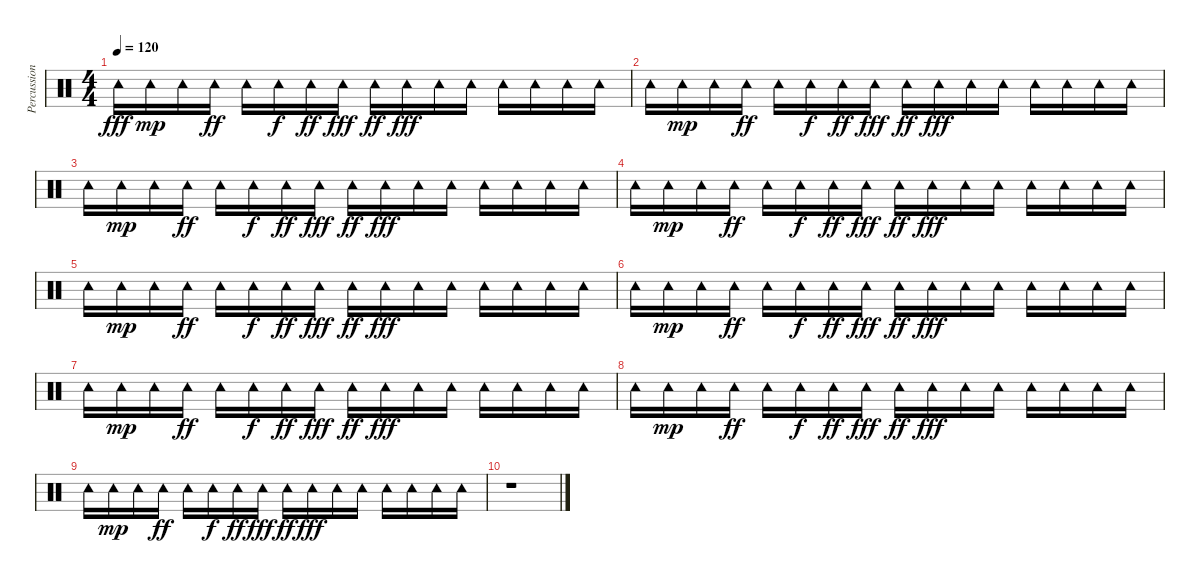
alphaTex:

\track ("Percussion" "Percussion") {instrument percussion}
\staff {score}
\articulation defaults
\ts (4 4)
\tempo 120
\clef neutral
\ks c "Tambourine (hit)".16{dy fff} "Tambourine (hit)".16{dy mp} "Tambourine (hit)".16 "Tambourine (hit)".16{dy ff} "Tambourine (hit)".16 "Tambourine (hit)".16{dy f} "Tambourine (hit)".16{dy ff} "Tambourine (hit)".16{dy fff} "Tambourine (hit)".16{dy ff} "Tambourine (hit)".16{dy fff} "Tambourine (hit)".16 "Tambourine (hit)".16 "Tambourine (hit)".16 "Tambourine (hit)".16 "Tambourine (hit)".16 "Tambourine (hit)".16
|
"Tambourine (hit)".16 "Tambourine (hit)".16{dy mp} "Tambourine (hit)".16 "Tambourine (hit)".16{dy ff} "Tambourine (hit)".16 "Tambourine (hit)".16{dy f} "Tambourine (hit)".16{dy ff} "Tambourine (hit)".16{dy fff} "Tambourine (hit)".16{dy ff} "Tambourine (hit)".16{dy fff} "Tambourine (hit)".16 "Tambourine (hit)".16 "Tambourine (hit)".16 "Tambourine (hit)".16 "Tambourine (hit)".16 "Tambourine (hit)".16 |
"Tambourine (hit)".16 "Tambourine (hit)".16{dy mp} "Tambourine (hit)".16 "Tambourine (hit)".16{dy ff} "Tambourine (hit)".16 "Tambourine (hit)".16{dy f} "Tambourine (hit)".16{dy ff} "Tambourine (hit)".16{dy fff} "Tambourine (hit)".16{dy ff} "Tambourine (hit)".16{dy fff} "Tambourine (hit)".16 "Tambourine (hit)".16 "Tambourine (hit)".16 "Tambourine (hit)".16 "Tambourine (hit)".16 "Tambourine (hit)".16 |
"Tambourine (hit)".16 "Tambourine (hit)".16{dy mp} "Tambourine (hit)".16 "Tambourine (hit)".16{dy ff} "Tambourine (hit)".16 "Tambourine (hit)".16{dy f} "Tambourine (hit)".16{dy ff} "Tambourine (hit)".16{dy fff} "Tambourine (hit)".16{dy ff} "Tambourine (hit)".16{dy fff} "Tambourine (hit)".16 "Tambourine (hit)".16 "Tambourine (hit)".16 "Tambourine (hit)".16 "Tambourine (hit)".16 "Tambourine (hit)".16 |
"Tambourine (hit)".16 "Tambourine (hit)".16{dy mp} "Tambourine (hit)".16 "Tambourine (hit)".16{dy ff} "Tambourine (hit)".16 "Tambourine (hit)".16{dy f} "Tambourine (hit)".16{dy ff} "Tambourine (hit)".16{dy fff} "Tambourine (hit)".16{dy ff} "Tambourine (hit)".16{dy fff} "Tambourine (hit)".16 "Tambourine (hit)".16 "Tambourine (hit)".16 "Tambourine (hit)".16 "Tambourine (hit)".16 "Tambourine (hit)".16 |
"Tambourine (hit)".16 "Tambourine (hit)".16{dy mp} "Tambourine (hit)".16 "Tambourine (hit)".16{dy ff} "Tambourine (hit)".16 "Tambourine (hit)".16{dy f} "Tambourine (hit)".16{dy ff} "Tambourine (hit)".16{dy fff} "Tambourine (hit)".16{dy ff} "Tambourine (hit)".16{dy fff} "Tambourine (hit)".16 "Tambourine (hit)".16 "Tambourine (hit)".16 "Tambourine (hit)".16 "Tambourine (hit)".16 "Tambourine (hit)".16 |
"Tambourine (hit)".16 "Tambourine (hit)".16{dy mp} "Tambourine (hit)".16 "Tambourine (hit)".16{dy ff} "Tambourine (hit)".16 "Tambourine (hit)".16{dy f} "Tambourine (hit)".16{dy ff} "Tambourine (hit)".16{dy fff} "Tambourine (hit)".16{dy ff} "Tambourine (hit)".16{dy fff} "Tambourine (hit)".16 "Tambourine (hit)".16 "Tambourine (hit)".16 "Tambourine (hit)".16 "Tambourine (hit)".16 "Tambourine (hit)".16 |
"Tambourine (hit)".16 "Tambourine (hit)".16{dy mp} "Tambourine (hit)".16 "Tambourine (hit)".16{dy ff} "Tambourine (hit)".16 "Tambourine (hit)".16{dy f} "Tambourine (hit)".16{dy ff} "Tambourine (hit)".16{dy fff} "Tambourine (hit)".16{dy ff} "Tambourine (hit)".16{dy fff} "Tambourine (hit)".16 "Tambourine (hit)".16 "Tambourine (hit)".16 "Tambourine (hit)".16 "Tambourine (hit)".16 "Tambourine (hit)".16 |
"Tambourine (hit)".16 "Tambourine (hit)".16{dy mp} "Tambourine (hit)".16 "Tambourine (hit)".16{dy ff} "Tambourine (hit)".16 "Tambourine (hit)".16{dy f} "Tambourine (hit)".16{dy ff} "Tambourine (hit)".16{dy fff} "Tambourine (hit)".16{dy ff} "Tambourine (hit)".16{dy fff} "Tambourine (hit)".16 "Tambourine (hit)".16 "Tambourine (hit)".16 "Tambourine (hit)".16 "Tambourine (hit)".16 "Tambourine (hit)".16 |
r.1
